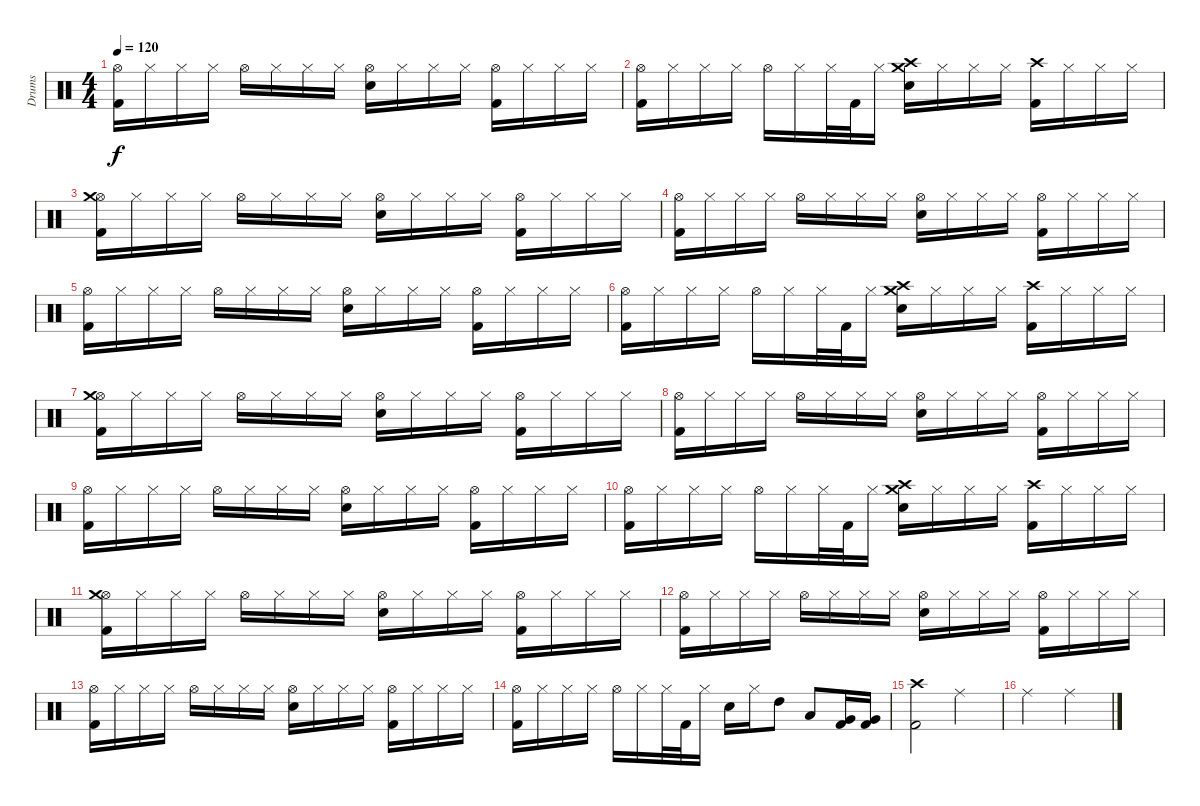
\track ("Drums" "Drums") {instrument percussion}
\staff {score}
\articulation defaults
\ts (4 4)
\tempo 120
\clef neutral
\ks c
("Hi-Hat (open)" "Kick (hit) 2").16{dy f} "Hi-Hat (closed)".16 "Hi-Hat (closed)".16 "Hi-Hat (closed)".16 "Hi-Hat (open)".16 "Hi-Hat (closed)".16 "Hi-Hat (closed)".16 "Hi-Hat (closed)".16 ("Hi-Hat (open)" "Snare (hit) 2").16 "Hi-Hat (closed)".16 "Hi-Hat (closed)".16 "Hi-Hat (closed)".16 ("Hi-Hat (open)" "Kick (hit) 2").16 "Hi-Hat (closed)".16 "Hi-Hat (closed)".16 "Hi-Hat (closed)".16 |
("Hi-Hat (open)" "Kick (hit) 2").16 "Hi-Hat (closed)".16 "Hi-Hat (closed)".16 "Hi-Hat (closed)".16 "Hi-Hat (open)".16 "Hi-Hat (closed)".16 "Hi-Hat (closed)".32 "Kick (hit) 2".32 "Hi-Hat (closed)".16 ("Crash high (hit)" "Crash medium (hit)" "Snare (hit) 2").16 "Hi-Hat (closed)".16 "Hi-Hat (closed)".16 "Hi-Hat (closed)".16 ("Crash high (hit)" "Kick (hit) 2").16 "Hi-Hat (closed)".16 "Hi-Hat (closed)".16 "Hi-Hat (closed)".16 |
("Hi-Hat (open)" "Crash medium (hit)" "Kick (hit) 2").16 "Hi-Hat (closed)".16 "Hi-Hat (closed)".16 "Hi-Hat (closed)".16 "Hi-Hat (open)".16 "Hi-Hat (closed)".16 "Hi-Hat (closed)".16 "Hi-Hat (closed)".16 ("Hi-Hat (open)" "Snare (hit) 2").16 "Hi-Hat (closed)".16 "Hi-Hat (closed)".16 "Hi-Hat (closed)".16 ("Hi-Hat (open)" "Kick (hit) 2").16 "Hi-Hat (closed)".16 "Hi-Hat (closed)".16 "Hi-Hat (closed)".16 |
("Hi-Hat (open)" "Kick (hit) 2").16 "Hi-Hat (closed)".16 "Hi-Hat (closed)".16 "Hi-Hat (closed)".16 "Hi-Hat (open)".16 "Hi-Hat (closed)".16 "Hi-Hat (closed)".16 "Hi-Hat (closed)".16 ("Hi-Hat (open)" "Snare (hit) 2").16 "Hi-Hat (closed)".16 "Hi-Hat (closed)".16 "Hi-Hat (closed)".16 ("Hi-Hat (open)" "Kick (hit) 2").16 "Hi-Hat (closed)".16 "Hi-Hat (closed)".16 "Hi-Hat (closed)".16 |
("Hi-Hat (open)" "Kick (hit) 2").16 "Hi-Hat (closed)".16 "Hi-Hat (closed)".16 "Hi-Hat (closed)".16 "Hi-Hat (open)".16 "Hi-Hat (closed)".16 "Hi-Hat (closed)".16 "Hi-Hat (closed)".16 ("Hi-Hat (open)" "Snare (hit) 2").16 "Hi-Hat (closed)".16 "Hi-Hat (closed)".16 "Hi-Hat (closed)".16 ("Hi-Hat (open)" "Kick (hit) 2").16 "Hi-Hat (closed)".16 "Hi-Hat (closed)".16 "Hi-Hat (closed)".16 |
("Hi-Hat (open)" "Kick (hit) 2").16 "Hi-Hat (closed)".16 "Hi-Hat (closed)".16 "Hi-Hat (closed)".16 "Hi-Hat (open)".16 "Hi-Hat (closed)".16 "Hi-Hat (closed)".32 "Kick (hit) 2".32 "Hi-Hat (closed)".16 ("Crash high (hit)" "Crash medium (hit)" "Snare (hit) 2").16 "Hi-Hat (closed)".16 "Hi-Hat (closed)".16 "Hi-Hat (closed)".16 ("Crash high (hit)" "Kick (hit) 2").16 "Hi-Hat (closed)".16 "Hi-Hat (closed)".16 "Hi-Hat (closed)".16 |
("Hi-Hat (open)" "Crash medium (hit)" "Kick (hit) 2").16 "Hi-Hat (closed)".16 "Hi-Hat (closed)".16 "Hi-Hat (closed)".16 "Hi-Hat (open)".16 "Hi-Hat (closed)".16 "Hi-Hat (closed)".16 "Hi-Hat (closed)".16 ("Hi-Hat (open)" "Snare (hit) 2").16 "Hi-Hat (closed)".16 "Hi-Hat (closed)".16 "Hi-Hat (closed)".16 ("Hi-Hat (open)" "Kick (hit) 2").16 "Hi-Hat (closed)".16 "Hi-Hat (closed)".16 "Hi-Hat (closed)".16 |
("Hi-Hat (open)" "Kick (hit) 2").16 "Hi-Hat (closed)".16 "Hi-Hat (closed)".16 "Hi-Hat (closed)".16 "Hi-Hat (open)".16 "Hi-Hat (closed)".16 "Hi-Hat (closed)".16 "Hi-Hat (closed)".16 ("Hi-Hat (open)" "Snare (hit) 2").16 "Hi-Hat (closed)".16 "Hi-Hat (closed)".16 "Hi-Hat (closed)".16 ("Hi-Hat (open)" "Kick (hit) 2").16 "Hi-Hat (closed)".16 "Hi-Hat (closed)".16 "Hi-Hat (closed)".16 |
("Hi-Hat (open)" "Kick (hit) 2").16 "Hi-Hat (closed)".16 "Hi-Hat (closed)".16 "Hi-Hat (closed)".16 "Hi-Hat (open)".16 "Hi-Hat (closed)".16 "Hi-Hat (closed)".16 "Hi-Hat (closed)".16 ("Hi-Hat (open)" "Snare (hit) 2").16 "Hi-Hat (closed)".16 "Hi-Hat (closed)".16 "Hi-Hat (closed)".16 ("Hi-Hat (open)" "Kick (hit) 2").16 "Hi-Hat (closed)".16 "Hi-Hat (closed)".16 "Hi-Hat (closed)".16 |
("Hi-Hat (open)" "Kick (hit) 2").16 "Hi-Hat (closed)".16 "Hi-Hat (closed)".16 "Hi-Hat (closed)".16 "Hi-Hat (open)".16 "Hi-Hat (closed)".16 "Hi-Hat (closed)".32 "Kick (hit) 2".32 "Hi-Hat (closed)".16 ("Crash medium (hit)" "Crash high (hit)" "Snare (hit) 2").16 "Hi-Hat (closed)".16 "Hi-Hat (closed)".16 "Hi-Hat (closed)".16 ("Crash high (hit)" "Kick (hit) 2").16 "Hi-Hat (closed)".16 "Hi-Hat (closed)".16 "Hi-Hat (closed)".16 |
("Hi-Hat (open)" "Crash medium (hit)" "Kick (hit) 2").16 "Hi-Hat (closed)".16 "Hi-Hat (closed)".16 "Hi-Hat (closed)".16 "Hi-Hat (open)".16 "Hi-Hat (closed)".16 "Hi-Hat (closed)".16 "Hi-Hat (closed)".16 ("Hi-Hat (open)" "Snare (hit) 2").16 "Hi-Hat (closed)".16 "Hi-Hat (closed)".16 "Hi-Hat (closed)".16 ("Hi-Hat (open)" "Kick (hit) 2").16 "Hi-Hat (closed)".16 "Hi-Hat (closed)".16 "Hi-Hat (closed)".16 |
("Hi-Hat (open)" "Kick (hit) 2").16 "Hi-Hat (closed)".16 "Hi-Hat (closed)".16 "Hi-Hat (closed)".16 "Hi-Hat (open)".16 "Hi-Hat (closed)".16 "Hi-Hat (closed)".16 "Hi-Hat (closed)".16 ("Hi-Hat (open)" "Snare (hit) 2").16 "Hi-Hat (closed)".16 "Hi-Hat (closed)".16 "Hi-Hat (closed)".16 ("Hi-Hat (open)" "Kick (hit) 2").16 "Hi-Hat (closed)".16 "Hi-Hat (closed)".16 "Hi-Hat (closed)".16 |
("Hi-Hat (open)" "Kick (hit) 2").16 "Hi-Hat (closed)".16 "Hi-Hat (closed)".16 "Hi-Hat (closed)".16 "Hi-Hat (open)".16 "Hi-Hat (closed)".16 "Hi-Hat (closed)".16 "Hi-Hat (closed)".16 ("Hi-Hat (open)" "Snare (hit) 2").16 "Hi-Hat (closed)".16 "Hi-Hat (closed)".16 "Hi-Hat (closed)".16 ("Hi-Hat (open)" "Kick (hit) 2").16 "Hi-Hat (closed)".16 "Hi-Hat (closed)".16 "Hi-Hat (closed)".16 |
("Hi-Hat (open)" "Kick (hit) 2").16 "Hi-Hat (closed)".16 "Hi-Hat (closed)".16 "Hi-Hat (closed)".16 "Hi-Hat (open)".16 "Hi-Hat (closed)".16 "Hi-Hat (closed)".32 "Kick (hit) 2".32 "Hi-Hat (closed)".16 "Snare (hit) 2".16 "Hi-Hat (closed)".16 "High Tom (hit)".8 "Low Tom (hit)".8 ("Very Low Tom (hit)" "Kick (hit) 2").16 ("Very Low Tom (hit)" "Kick (hit) 2").16 |
("Crash high (hit)" "Kick (hit) 2").2 "Ride (middle)".2 |
"Ride (middle)".2 "Ride (middle)".2
